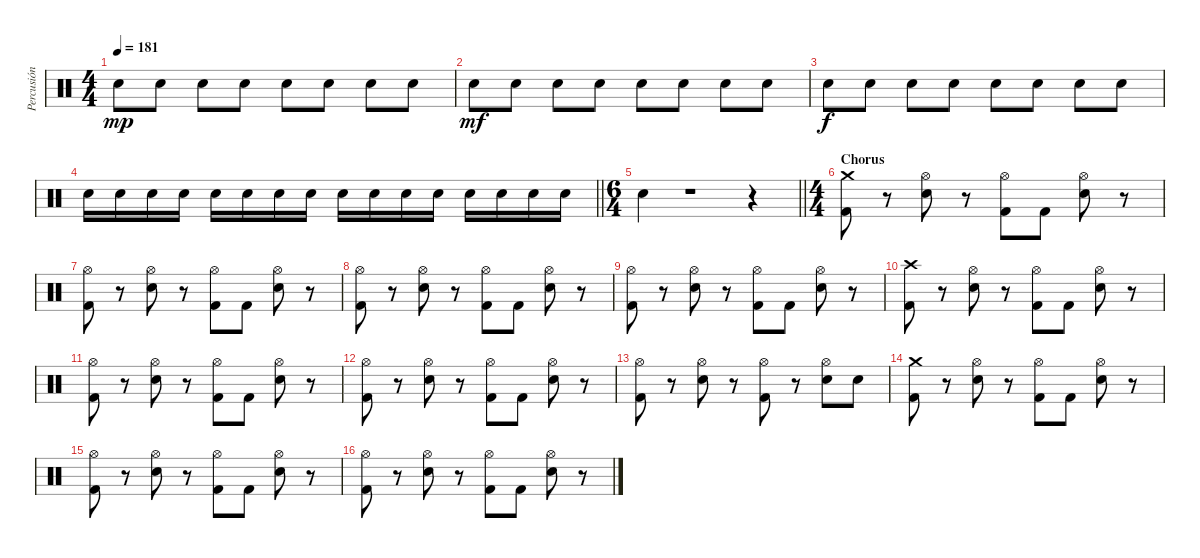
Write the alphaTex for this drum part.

\track ("Percusión" "Percusión") {instrument percussion}
\staff {score}
\articulation defaults
\ts (4 4)
\tempo 181
\clef neutral
\ks c "Electric Snare (hit)".8{dy mp} "Electric Snare (hit)".8 "Electric Snare (hit)".8 "Electric Snare (hit)".8 "Electric Snare (hit)".8 "Electric Snare (hit)".8 "Electric Snare (hit)".8 "Electric Snare (hit)".8
|
"Electric Snare (hit)".8{dy mf} "Electric Snare (hit)".8 "Electric Snare (hit)".8 "Electric Snare (hit)".8 "Electric Snare (hit)".8 "Electric Snare (hit)".8 "Electric Snare (hit)".8 "Electric Snare (hit)".8 |
"Electric Snare (hit)".8{dy f} "Electric Snare (hit)".8 "Electric Snare (hit)".8 "Electric Snare (hit)".8 "Electric Snare (hit)".8 "Electric Snare (hit)".8 "Electric Snare (hit)".8 "Electric Snare (hit)".8 |
\barLineRight lightlight "Electric Snare (hit)".16 "Electric Snare (hit)".16 "Electric Snare (hit)".16 "Electric Snare (hit)".16 "Electric Snare (hit)".16 "Electric Snare (hit)".16 "Electric Snare (hit)".16 "Electric Snare (hit)".16 "Electric Snare (hit)".16 "Electric Snare (hit)".16 "Electric Snare (hit)".16 "Electric Snare (hit)".16 "Electric Snare (hit)".16 "Electric Snare (hit)".16 "Electric Snare (hit)".16 "Electric Snare (hit)".16
|
\ts (6 4)
\barLineRight lightlight "Electric Snare (hit)".4
r.1 r.4 |
\ts (4 4)
\section ("" "Chorus")
("Crash medium (hit)" "Kick (hit) 2").8 r.8 ("Hi-Hat (open)" "Electric Snare (hit)").8 r.8 ("Hi-Hat (open)" "Kick (hit) 2").8 "Kick (hit) 2".8 ("Hi-Hat (open)" "Electric Snare (hit)").8 r.8 |
("Hi-Hat (open)" "Kick (hit) 2").8 r.8 ("Hi-Hat (open)" "Electric Snare (hit)").8 r.8 ("Hi-Hat (open)" "Kick (hit) 2").8 "Kick (hit) 2".8 ("Hi-Hat (open)" "Electric Snare (hit)").8 r.8 |
("Hi-Hat (open)" "Kick (hit) 2").8 r.8 ("Hi-Hat (open)" "Electric Snare (hit)").8 r.8 ("Hi-Hat (open)" "Kick (hit) 2").8 "Kick (hit) 2".8 ("Hi-Hat (open)" "Electric Snare (hit)").8 r.8 |
("Hi-Hat (open)" "Kick (hit) 2").8 r.8 ("Hi-Hat (open)" "Electric Snare (hit)").8 r.8 ("Hi-Hat (open)" "Kick (hit) 2").8 "Kick (hit) 2".8 ("Hi-Hat (open)" "Electric Snare (hit)").8 r.8 |
("Crash high (hit)" "Kick (hit) 2").8 r.8 ("Hi-Hat (open)" "Electric Snare (hit)").8 r.8 ("Hi-Hat (open)" "Kick (hit) 2").8 "Kick (hit) 2".8 ("Hi-Hat (open)" "Electric Snare (hit)").8 r.8 |
("Hi-Hat (open)" "Kick (hit) 2").8 r.8 ("Hi-Hat (open)" "Electric Snare (hit)").8 r.8 ("Hi-Hat (open)" "Kick (hit) 2").8 "Kick (hit) 2".8 ("Hi-Hat (open)" "Electric Snare (hit)").8 r.8 |
("Hi-Hat (open)" "Kick (hit) 2").8 r.8 ("Hi-Hat (open)" "Electric Snare (hit)").8 r.8 ("Hi-Hat (open)" "Kick (hit) 2").8 "Kick (hit) 2".8 ("Hi-Hat (open)" "Electric Snare (hit)").8 r.8 |
("Hi-Hat (open)" "Kick (hit) 2").8 r.8 ("Hi-Hat (open)" "Electric Snare (hit)").8 r.8 ("Hi-Hat (open)" "Kick (hit) 2").8 r.8 ("Hi-Hat (open)" "Electric Snare (hit)").8 "Electric Snare (hit)".8 |
("Crash medium (hit)" "Kick (hit) 2").8 r.8 ("Hi-Hat (open)" "Electric Snare (hit)").8 r.8 ("Hi-Hat (open)" "Kick (hit) 2").8 "Kick (hit) 2".8 ("Hi-Hat (open)" "Electric Snare (hit)").8 r.8 |
("Hi-Hat (open)" "Kick (hit) 2").8 r.8 ("Hi-Hat (open)" "Electric Snare (hit)").8 r.8 ("Hi-Hat (open)" "Kick (hit) 2").8 "Kick (hit) 2".8 ("Hi-Hat (open)" "Electric Snare (hit)").8 r.8 |
("Hi-Hat (open)" "Kick (hit) 2").8 r.8 ("Hi-Hat (open)" "Electric Snare (hit)").8 r.8 ("Hi-Hat (open)" "Kick (hit) 2").8 "Kick (hit) 2".8 ("Hi-Hat (open)" "Electric Snare (hit)").8 r.8
